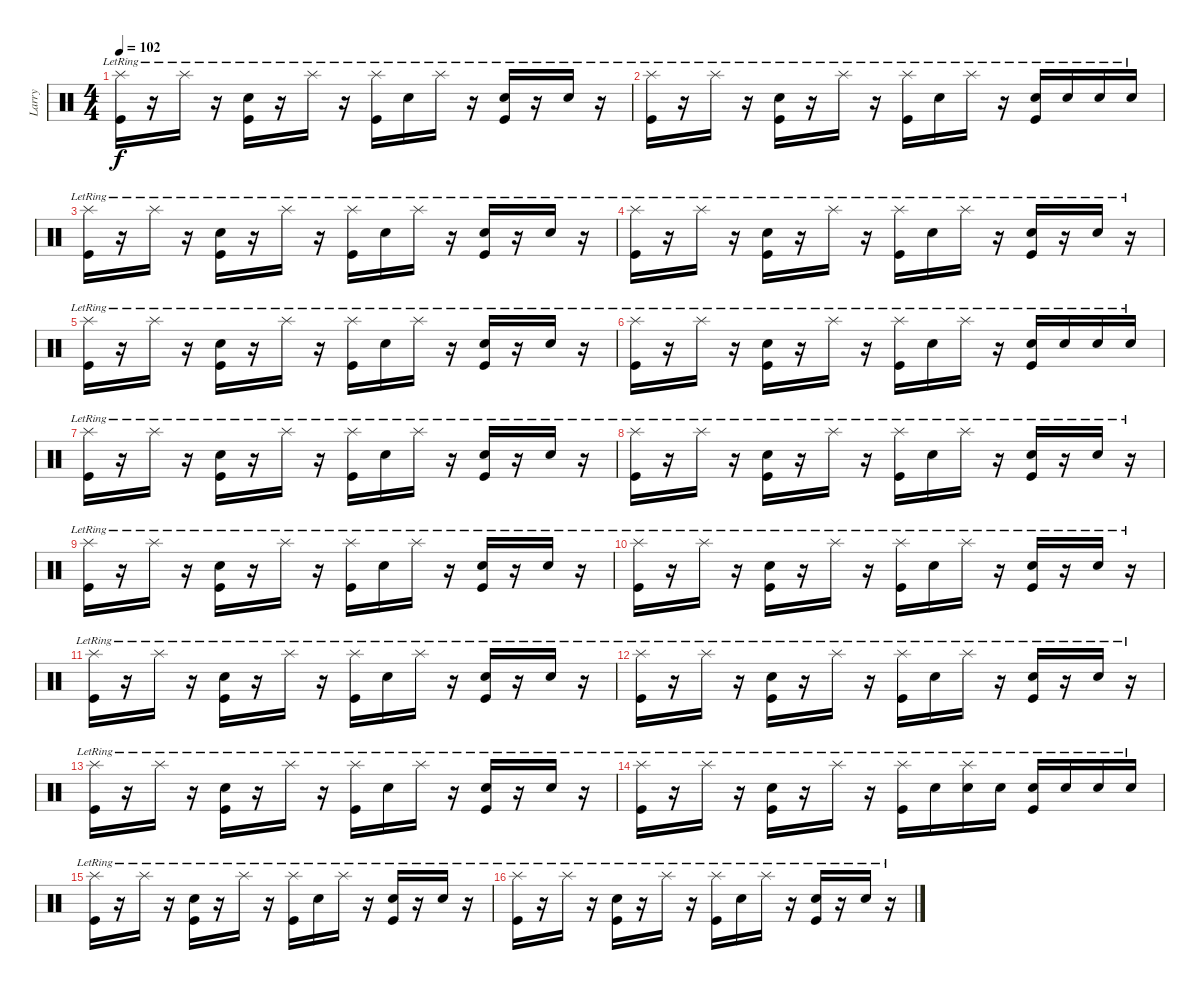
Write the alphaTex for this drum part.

\track ("Larry" "Larry") {instrument percussion}
\staff {score}
\articulation defaults
\ts (4 4)
\tempo 102
\clef neutral
\ks c
("Splash (hit)"{lr} "Kick (hit)"{lr}).16{dy f} r.16 "Splash (hit)"{lr}.16 r.16 ("Snare (hit) 2"{lr} "Kick (hit)"{lr}).16 r.16 "Splash (hit)"{lr}.16 r.16 ("Splash (hit)"{lr} "Kick (hit)"{lr}).16 "Snare (hit) 2"{lr}.16 "Splash (hit)"{lr}.16 r.16 ("Snare (hit) 2"{lr} "Kick (hit)"{lr}).16 r.16 "Snare (hit) 2"{lr}.16 r.16 |
("Splash (hit)"{lr} "Kick (hit)"{lr}).16 r.16 "Splash (hit)"{lr}.16 r.16 ("Snare (hit) 2"{lr} "Kick (hit)"{lr}).16 r.16 "Splash (hit)"{lr}.16 r.16 ("Splash (hit)"{lr} "Kick (hit)"{lr}).16 "Snare (hit) 2"{lr}.16 "Splash (hit)"{lr}.16 r.16 ("Snare (hit) 2"{lr} "Kick (hit)"{lr}).16 "Snare (hit) 2"{lr}.16 "Snare (hit) 2"{lr}.16 "Snare (hit) 2"{lr}.16 |
("Splash (hit)"{lr} "Kick (hit)"{lr}).16 r.16 "Splash (hit)"{lr}.16 r.16 ("Snare (hit) 2"{lr} "Kick (hit)"{lr}).16 r.16 "Splash (hit)"{lr}.16 r.16 ("Splash (hit)"{lr} "Kick (hit)"{lr}).16 "Snare (hit) 2"{lr}.16 "Splash (hit)"{lr}.16 r.16 ("Snare (hit) 2"{lr} "Kick (hit)"{lr}).16 r.16 "Snare (hit) 2"{lr}.16 r.16 |
("Splash (hit)"{lr} "Kick (hit)"{lr}).16 r.16 "Splash (hit)"{lr}.16 r.16 ("Snare (hit) 2"{lr} "Kick (hit)"{lr}).16 r.16 "Splash (hit)"{lr}.16 r.16 ("Splash (hit)"{lr} "Kick (hit)"{lr}).16 "Snare (hit) 2"{lr}.16 "Splash (hit)"{lr}.16 r.16 ("Snare (hit) 2"{lr} "Kick (hit)"{lr}).16 r.16 "Snare (hit) 2"{lr}.16 r.16 |
("Splash (hit)"{lr} "Kick (hit)"{lr}).16 r.16 "Splash (hit)"{lr}.16 r.16 ("Snare (hit) 2"{lr} "Kick (hit)"{lr}).16 r.16 "Splash (hit)"{lr}.16 r.16 ("Splash (hit)"{lr} "Kick (hit)"{lr}).16 "Snare (hit) 2"{lr}.16 "Splash (hit)"{lr}.16 r.16 ("Snare (hit) 2"{lr} "Kick (hit)"{lr}).16 r.16 "Snare (hit) 2"{lr}.16 r.16 |
("Splash (hit)"{lr} "Kick (hit)"{lr}).16 r.16 "Splash (hit)"{lr}.16 r.16 ("Snare (hit) 2"{lr} "Kick (hit)"{lr}).16 r.16 "Splash (hit)"{lr}.16 r.16 ("Splash (hit)"{lr} "Kick (hit)"{lr}).16 "Snare (hit) 2"{lr}.16 "Splash (hit)"{lr}.16 r.16 ("Snare (hit) 2"{lr} "Kick (hit)"{lr}).16 "Snare (hit) 2"{lr}.16 "Snare (hit) 2"{lr}.16 "Snare (hit) 2"{lr}.16 |
("Splash (hit)"{lr} "Kick (hit)"{lr}).16 r.16 "Splash (hit)"{lr}.16 r.16 ("Snare (hit) 2"{lr} "Kick (hit)"{lr}).16 r.16 "Splash (hit)"{lr}.16 r.16 ("Splash (hit)"{lr} "Kick (hit)"{lr}).16 "Snare (hit) 2"{lr}.16 "Splash (hit)"{lr}.16 r.16 ("Snare (hit) 2"{lr} "Kick (hit)"{lr}).16 r.16 "Snare (hit) 2"{lr}.16 r.16 |
("Splash (hit)"{lr} "Kick (hit)"{lr}).16 r.16 "Splash (hit)"{lr}.16 r.16 ("Snare (hit) 2"{lr} "Kick (hit)"{lr}).16 r.16 "Splash (hit)"{lr}.16 r.16 ("Splash (hit)"{lr} "Kick (hit)"{lr}).16 "Snare (hit) 2"{lr}.16 "Splash (hit)"{lr}.16 r.16 ("Snare (hit) 2"{lr} "Kick (hit)"{lr}).16 r.16 "Snare (hit) 2"{lr}.16 r.16 |
("Splash (hit)"{lr} "Kick (hit)"{lr}).16 r.16 "Splash (hit)"{lr}.16 r.16 ("Snare (hit) 2"{lr} "Kick (hit)"{lr}).16 r.16 "Splash (hit)"{lr}.16 r.16 ("Splash (hit)"{lr} "Kick (hit)"{lr}).16 "Snare (hit) 2"{lr}.16 "Splash (hit)"{lr}.16 r.16 ("Snare (hit) 2"{lr} "Kick (hit)"{lr}).16 r.16 "Snare (hit) 2"{lr}.16 r.16 |
("Splash (hit)"{lr} "Kick (hit)"{lr}).16 r.16 "Splash (hit)"{lr}.16 r.16 ("Snare (hit) 2"{lr} "Kick (hit)"{lr}).16 r.16 "Splash (hit)"{lr}.16 r.16 ("Splash (hit)"{lr} "Kick (hit)"{lr}).16 "Snare (hit) 2"{lr}.16 "Splash (hit)"{lr}.16 r.16 ("Snare (hit) 2"{lr} "Kick (hit)"{lr}).16 r.16 "Snare (hit) 2"{lr}.16 r.16 |
("Splash (hit)"{lr} "Kick (hit)"{lr}).16 r.16 "Splash (hit)"{lr}.16 r.16 ("Snare (hit) 2"{lr} "Kick (hit)"{lr}).16 r.16 "Splash (hit)"{lr}.16 r.16 ("Splash (hit)"{lr} "Kick (hit)"{lr}).16 "Snare (hit) 2"{lr}.16 "Splash (hit)"{lr}.16 r.16 ("Snare (hit) 2"{lr} "Kick (hit)"{lr}).16 r.16 "Snare (hit) 2"{lr}.16 r.16 |
("Splash (hit)"{lr} "Kick (hit)"{lr}).16 r.16 "Splash (hit)"{lr}.16 r.16 ("Snare (hit) 2"{lr} "Kick (hit)"{lr}).16 r.16 "Splash (hit)"{lr}.16 r.16 ("Splash (hit)"{lr} "Kick (hit)"{lr}).16 "Snare (hit) 2"{lr}.16 "Splash (hit)"{lr}.16 r.16 ("Snare (hit) 2"{lr} "Kick (hit)"{lr}).16 r.16 "Snare (hit) 2"{lr}.16 r.16 |
("Splash (hit)"{lr} "Kick (hit)"{lr}).16 r.16 "Splash (hit)"{lr}.16 r.16 ("Snare (hit) 2"{lr} "Kick (hit)"{lr}).16 r.16 "Splash (hit)"{lr}.16 r.16 ("Splash (hit)"{lr} "Kick (hit)"{lr}).16 "Snare (hit) 2"{lr}.16 "Splash (hit)"{lr}.16 r.16 ("Snare (hit) 2"{lr} "Kick (hit)"{lr}).16 r.16 "Snare (hit) 2"{lr}.16 r.16 |
("Splash (hit)"{lr} "Kick (hit)"{lr}).16 r.16 "Splash (hit)"{lr}.16 r.16 ("Snare (hit) 2"{lr} "Kick (hit)"{lr}).16 r.16 "Splash (hit)"{lr}.16 r.16 ("Splash (hit)"{lr} "Kick (hit)"{lr}).16 "Snare (hit) 2"{lr}.16 ("Splash (hit)"{lr} "Snare (hit) 2"{lr}).16 "Snare (hit) 2"{lr}.16 ("Snare (hit) 2"{lr} "Kick (hit)"{lr}).16 "Snare (hit) 2"{lr}.16 "Snare (hit) 2"{lr}.16 "Snare (hit) 2"{lr}.16 |
("Splash (hit)"{lr} "Kick (hit)"{lr}).16 r.16 "Splash (hit)"{lr}.16 r.16 ("Snare (hit) 2"{lr} "Kick (hit)"{lr}).16 r.16 "Splash (hit)"{lr}.16 r.16 ("Splash (hit)"{lr} "Kick (hit)"{lr}).16 "Snare (hit) 2"{lr}.16 "Splash (hit)"{lr}.16 r.16 ("Snare (hit) 2"{lr} "Kick (hit)"{lr}).16 r.16 "Snare (hit) 2"{lr}.16 r.16 |
("Splash (hit)"{lr} "Kick (hit)"{lr}).16 r.16 "Splash (hit)"{lr}.16 r.16 ("Snare (hit) 2"{lr} "Kick (hit)"{lr}).16 r.16 "Splash (hit)"{lr}.16 r.16 ("Splash (hit)"{lr} "Kick (hit)"{lr}).16 "Snare (hit) 2"{lr}.16 "Splash (hit)"{lr}.16 r.16 ("Snare (hit) 2"{lr} "Kick (hit)"{lr}).16 r.16 "Snare (hit) 2"{lr}.16 r.16
